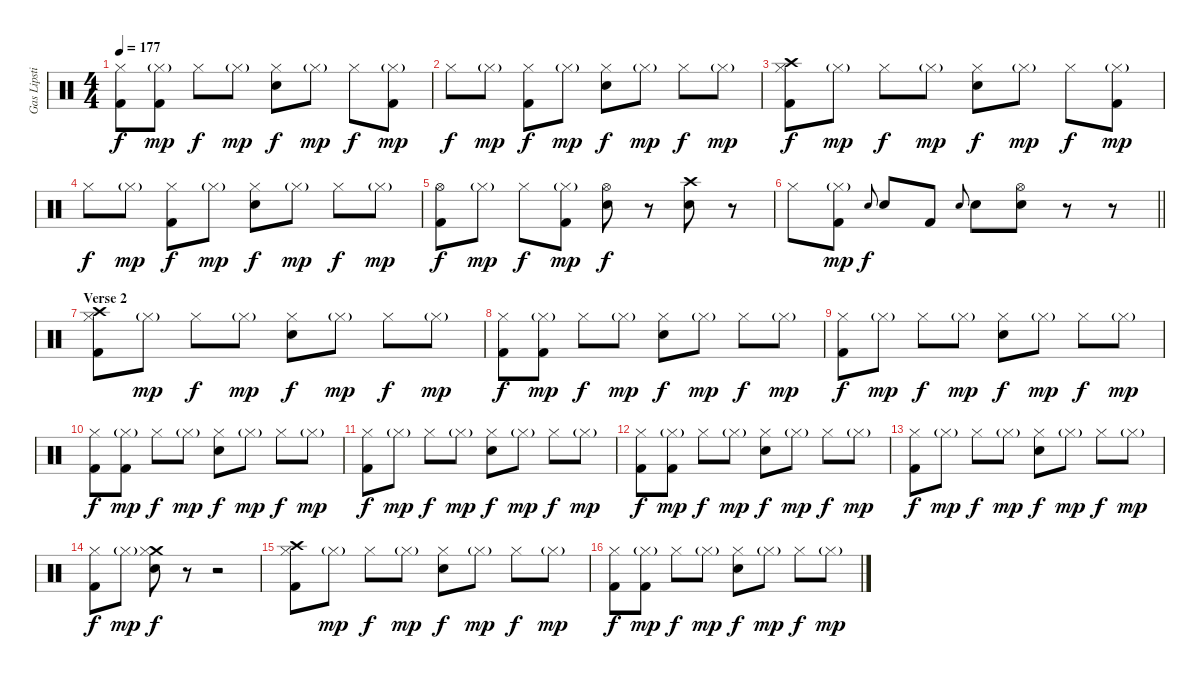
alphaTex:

\track ("Gas Lipstick (Drums)" "Gas Lipsti") {instrument percussion}
\staff {score}
\articulation defaults
\ts (4 4)
\tempo 177
\clef neutral
\ks c
("Hi-Hat (closed)" "Kick (hit) 2").8{dy f} ("Hi-Hat (closed)"{g} "Kick (hit) 2").8{dy mp} "Hi-Hat (closed)".8{dy f} "Hi-Hat (closed)"{g}.8{dy mp} ("Hi-Hat (closed)" "Snare (hit) 2").8{dy f} "Hi-Hat (closed)"{g}.8{dy mp} "Hi-Hat (closed)".8{dy f} ("Hi-Hat (closed)"{g} "Kick (hit) 2").8{dy mp} |
"Hi-Hat (closed)".8{dy f} "Hi-Hat (closed)"{g}.8{dy mp} ("Hi-Hat (closed)" "Kick (hit) 2").8{dy f} "Hi-Hat (closed)"{g}.8{dy mp} ("Hi-Hat (closed)" "Snare (hit) 2").8{dy f} "Hi-Hat (closed)"{g}.8{dy mp} "Hi-Hat (closed)".8{dy f} "Hi-Hat (closed)"{g}.8{dy mp} |
("Crash high (hit)" "Hi-Hat (closed)" "Kick (hit) 2").8{dy f} "Hi-Hat (closed)"{g}.8{dy mp} "Hi-Hat (closed)".8{dy f} "Hi-Hat (closed)"{g}.8{dy mp} ("Hi-Hat (closed)" "Snare (hit) 2").8{dy f} "Hi-Hat (closed)"{g}.8{dy mp} "Hi-Hat (closed)".8{dy f} ("Hi-Hat (closed)"{g} "Kick (hit) 2").8{dy mp} |
"Hi-Hat (closed)".8{dy f} "Hi-Hat (closed)"{g}.8{dy mp} ("Hi-Hat (closed)" "Kick (hit) 2").8{dy f} "Hi-Hat (closed)"{g}.8{dy mp} ("Hi-Hat (closed)" "Snare (hit) 2").8{dy f} "Hi-Hat (closed)"{g}.8{dy mp} "Hi-Hat (closed)".8{dy f} "Hi-Hat (closed)"{g}.8{dy mp} |
("Hi-Hat (open)" "Kick (hit) 2").8{dy f} "Hi-Hat (closed)"{g}.8{dy mp} "Hi-Hat (closed)".8{dy f} ("Hi-Hat (closed)"{g} "Kick (hit) 2").8{dy mp} ("Hi-Hat (open)" "Snare (hit) 2").8{dy f} r.8 ("Crash high (hit)" "Snare (hit) 2").8 r.8 |
\barLineRight lightlight "Hi-Hat (closed)".8
("Hi-Hat (closed)"{g} "Kick (hit) 2").8{dy mp} "Snare (hit) 2".8{gr onbeat dy f} "Snare (hit) 2".8 "Kick (hit) 2".8 "Snare (hit) 2".8{gr onbeat} "Snare (hit) 2".8 ("Hi-Hat (open)" "Snare (hit) 2").8 r.8 r.8 |
\section ("" "Verse 2")
("Crash high (hit)" "Hi-Hat (closed)" "Kick (hit) 2").8 "Hi-Hat (closed)"{g}.8{dy mp} "Hi-Hat (closed)".8{dy f} "Hi-Hat (closed)"{g}.8{dy mp} ("Hi-Hat (closed)" "Snare (hit) 2").8{dy f} "Hi-Hat (closed)"{g}.8{dy mp} "Hi-Hat (closed)".8{dy f} "Hi-Hat (closed)"{g}.8{dy mp} |
("Hi-Hat (closed)" "Kick (hit) 2").8{dy f} ("Hi-Hat (closed)"{g} "Kick (hit) 2").8{dy mp} "Hi-Hat (closed)".8{dy f} "Hi-Hat (closed)"{g}.8{dy mp} ("Hi-Hat (closed)" "Snare (hit) 2").8{dy f} "Hi-Hat (closed)"{g}.8{dy mp} "Hi-Hat (closed)".8{dy f} "Hi-Hat (closed)"{g}.8{dy mp} |
("Hi-Hat (closed)" "Kick (hit) 2").8{dy f} "Hi-Hat (closed)"{g}.8{dy mp} "Hi-Hat (closed)".8{dy f} "Hi-Hat (closed)"{g}.8{dy mp} ("Hi-Hat (closed)" "Snare (hit) 2").8{dy f} "Hi-Hat (closed)"{g}.8{dy mp} "Hi-Hat (closed)".8{dy f} "Hi-Hat (closed)"{g}.8{dy mp} |
("Hi-Hat (closed)" "Kick (hit) 2").8{dy f} ("Hi-Hat (closed)"{g} "Kick (hit) 2").8{dy mp} "Hi-Hat (closed)".8{dy f} "Hi-Hat (closed)"{g}.8{dy mp} ("Hi-Hat (closed)" "Snare (hit) 2").8{dy f} "Hi-Hat (closed)"{g}.8{dy mp} "Hi-Hat (closed)".8{dy f} "Hi-Hat (closed)"{g}.8{dy mp} |
("Hi-Hat (closed)" "Kick (hit) 2").8{dy f} "Hi-Hat (closed)"{g}.8{dy mp} "Hi-Hat (closed)".8{dy f} "Hi-Hat (closed)"{g}.8{dy mp} ("Hi-Hat (closed)" "Snare (hit) 2").8{dy f} "Hi-Hat (closed)"{g}.8{dy mp} "Hi-Hat (closed)".8{dy f} "Hi-Hat (closed)"{g}.8{dy mp} |
("Hi-Hat (closed)" "Kick (hit) 2").8{dy f} ("Hi-Hat (closed)"{g} "Kick (hit) 2").8{dy mp} "Hi-Hat (closed)".8{dy f} "Hi-Hat (closed)"{g}.8{dy mp} ("Hi-Hat (closed)" "Snare (hit) 2").8{dy f} "Hi-Hat (closed)"{g}.8{dy mp} "Hi-Hat (closed)".8{dy f} "Hi-Hat (closed)"{g}.8{dy mp} |
("Hi-Hat (closed)" "Kick (hit) 2").8{dy f} "Hi-Hat (closed)"{g}.8{dy mp} "Hi-Hat (closed)".8{dy f} "Hi-Hat (closed)"{g}.8{dy mp} ("Hi-Hat (closed)" "Snare (hit) 2").8{dy f} "Hi-Hat (closed)"{g}.8{dy mp} "Hi-Hat (closed)".8{dy f} "Hi-Hat (closed)"{g}.8{dy mp} |
("Hi-Hat (closed)" "Kick (hit) 2").8{dy f} "Hi-Hat (closed)"{g}.8{dy mp} ("Crash medium (hit)" "Hi-Hat (closed)" "Snare (hit) 2").8{dy f} r.8 r.2 |
("Crash high (hit)" "Hi-Hat (closed)" "Kick (hit) 2").8 "Hi-Hat (closed)"{g}.8{dy mp} "Hi-Hat (closed)".8{dy f} "Hi-Hat (closed)"{g}.8{dy mp} ("Hi-Hat (closed)" "Snare (hit) 2").8{dy f} "Hi-Hat (closed)"{g}.8{dy mp} "Hi-Hat (closed)".8{dy f} "Hi-Hat (closed)"{g}.8{dy mp} |
("Hi-Hat (closed)" "Kick (hit) 2").8{dy f} ("Hi-Hat (closed)"{g} "Kick (hit) 2").8{dy mp} "Hi-Hat (closed)".8{dy f} "Hi-Hat (closed)"{g}.8{dy mp} ("Hi-Hat (closed)" "Snare (hit) 2").8{dy f} "Hi-Hat (closed)"{g}.8{dy mp} "Hi-Hat (closed)".8{dy f} "Hi-Hat (closed)"{g}.8{dy mp}
